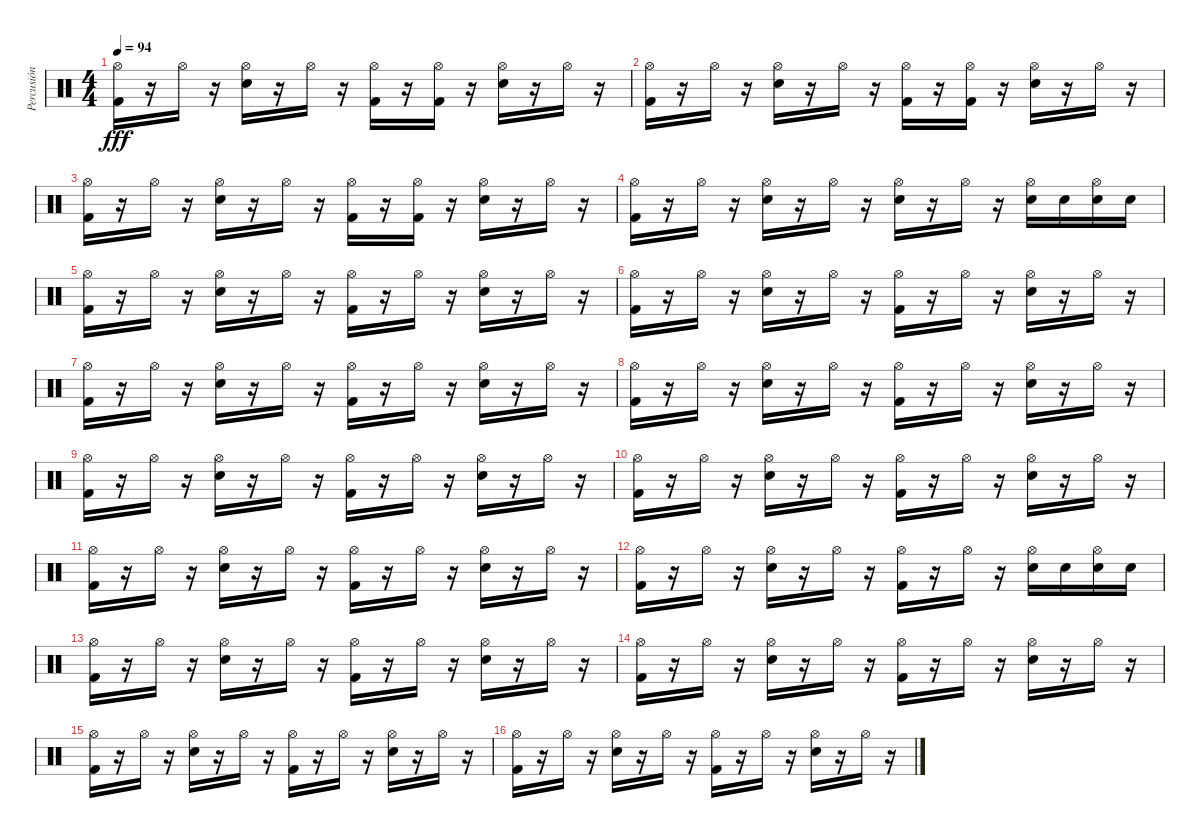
\track ("Percusión" "Percusión") {instrument percussion}
\staff {score}
\articulation defaults
\ts (4 4)
\tempo 94
\clef neutral
\ks c
("Hi-Hat (open)" "Kick (hit) 2").16{dy fff} r.16 "Hi-Hat (open)".16 r.16 ("Hi-Hat (open)" "Snare (hit) 2").16 r.16 "Hi-Hat (open)".16 r.16 ("Hi-Hat (open)" "Kick (hit) 2").16 r.16 ("Hi-Hat (open)" "Kick (hit) 2").16 r.16 ("Hi-Hat (open)" "Snare (hit) 2").16 r.16 "Hi-Hat (open)".16 r.16 |
("Hi-Hat (open)" "Kick (hit) 2").16 r.16 "Hi-Hat (open)".16 r.16 ("Hi-Hat (open)" "Snare (hit) 2").16 r.16 "Hi-Hat (open)".16 r.16 ("Hi-Hat (open)" "Kick (hit) 2").16 r.16 ("Hi-Hat (open)" "Kick (hit) 2").16 r.16 ("Hi-Hat (open)" "Snare (hit) 2").16 r.16 "Hi-Hat (open)".16 r.16 |
("Hi-Hat (open)" "Kick (hit) 2").16 r.16 "Hi-Hat (open)".16 r.16 ("Hi-Hat (open)" "Snare (hit) 2").16 r.16 "Hi-Hat (open)".16 r.16 ("Hi-Hat (open)" "Kick (hit) 2").16 r.16 ("Hi-Hat (open)" "Kick (hit) 2").16 r.16 ("Hi-Hat (open)" "Snare (hit) 2").16 r.16 "Hi-Hat (open)".16 r.16 |
("Hi-Hat (open)" "Kick (hit) 2").16 r.16 "Hi-Hat (open)".16 r.16 ("Hi-Hat (open)" "Snare (hit) 2").16 r.16 "Hi-Hat (open)".16 r.16 ("Hi-Hat (open)" "Snare (hit) 2").16 r.16 "Hi-Hat (open)".16 r.16 ("Hi-Hat (open)" "Snare (hit) 2").16 "Snare (hit) 2".16 ("Hi-Hat (open)" "Snare (hit) 2").16 "Snare (hit) 2".16 |
("Hi-Hat (open)" "Kick (hit) 2").16 r.16 "Hi-Hat (open)".16 r.16 ("Hi-Hat (open)" "Snare (hit) 2").16 r.16 "Hi-Hat (open)".16 r.16 ("Hi-Hat (open)" "Kick (hit) 2").16 r.16 "Hi-Hat (open)".16 r.16 ("Hi-Hat (open)" "Snare (hit) 2").16 r.16 "Hi-Hat (open)".16 r.16 |
("Hi-Hat (open)" "Kick (hit) 2").16 r.16 "Hi-Hat (open)".16 r.16 ("Hi-Hat (open)" "Snare (hit) 2").16 r.16 "Hi-Hat (open)".16 r.16 ("Hi-Hat (open)" "Kick (hit) 2").16 r.16 "Hi-Hat (open)".16 r.16 ("Hi-Hat (open)" "Snare (hit) 2").16 r.16 "Hi-Hat (open)".16 r.16 |
("Hi-Hat (open)" "Kick (hit) 2").16 r.16 "Hi-Hat (open)".16 r.16 ("Hi-Hat (open)" "Snare (hit) 2").16 r.16 "Hi-Hat (open)".16 r.16 ("Hi-Hat (open)" "Kick (hit) 2").16 r.16 "Hi-Hat (open)".16 r.16 ("Hi-Hat (open)" "Snare (hit) 2").16 r.16 "Hi-Hat (open)".16 r.16 |
("Hi-Hat (open)" "Kick (hit) 2").16 r.16 "Hi-Hat (open)".16 r.16 ("Hi-Hat (open)" "Snare (hit) 2").16 r.16 "Hi-Hat (open)".16 r.16 ("Hi-Hat (open)" "Kick (hit) 2").16 r.16 "Hi-Hat (open)".16 r.16 ("Hi-Hat (open)" "Snare (hit) 2").16 r.16 "Hi-Hat (open)".16 r.16 |
("Hi-Hat (open)" "Kick (hit) 2").16 r.16 "Hi-Hat (open)".16 r.16 ("Hi-Hat (open)" "Snare (hit) 2").16 r.16 "Hi-Hat (open)".16 r.16 ("Hi-Hat (open)" "Kick (hit) 2").16 r.16 "Hi-Hat (open)".16 r.16 ("Hi-Hat (open)" "Snare (hit) 2").16 r.16 "Hi-Hat (open)".16 r.16 |
("Hi-Hat (open)" "Kick (hit) 2").16 r.16 "Hi-Hat (open)".16 r.16 ("Hi-Hat (open)" "Snare (hit) 2").16 r.16 "Hi-Hat (open)".16 r.16 ("Hi-Hat (open)" "Kick (hit) 2").16 r.16 "Hi-Hat (open)".16 r.16 ("Hi-Hat (open)" "Snare (hit) 2").16 r.16 "Hi-Hat (open)".16 r.16 |
("Hi-Hat (open)" "Kick (hit) 2").16 r.16 "Hi-Hat (open)".16 r.16 ("Hi-Hat (open)" "Snare (hit) 2").16 r.16 "Hi-Hat (open)".16 r.16 ("Hi-Hat (open)" "Kick (hit) 2").16 r.16 "Hi-Hat (open)".16 r.16 ("Hi-Hat (open)" "Snare (hit) 2").16 r.16 "Hi-Hat (open)".16 r.16 |
("Hi-Hat (open)" "Kick (hit) 2").16 r.16 "Hi-Hat (open)".16 r.16 ("Hi-Hat (open)" "Snare (hit) 2").16 r.16 "Hi-Hat (open)".16 r.16 ("Hi-Hat (open)" "Kick (hit) 2").16 r.16 "Hi-Hat (open)".16 r.16 ("Hi-Hat (open)" "Snare (hit) 2").16 "Snare (hit) 2".16 ("Hi-Hat (open)" "Snare (hit) 2").16 "Snare (hit) 2".16 |
("Hi-Hat (open)" "Kick (hit) 2").16 r.16 "Hi-Hat (open)".16 r.16 ("Hi-Hat (open)" "Snare (hit) 2").16 r.16 "Hi-Hat (open)".16 r.16 ("Hi-Hat (open)" "Kick (hit) 2").16 r.16 "Hi-Hat (open)".16 r.16 ("Hi-Hat (open)" "Snare (hit) 2").16 r.16 "Hi-Hat (open)".16 r.16 |
("Hi-Hat (open)" "Kick (hit) 2").16 r.16 "Hi-Hat (open)".16 r.16 ("Hi-Hat (open)" "Snare (hit) 2").16 r.16 "Hi-Hat (open)".16 r.16 ("Hi-Hat (open)" "Kick (hit) 2").16 r.16 "Hi-Hat (open)".16 r.16 ("Hi-Hat (open)" "Snare (hit) 2").16 r.16 "Hi-Hat (open)".16 r.16 |
("Hi-Hat (open)" "Kick (hit) 2").16 r.16 "Hi-Hat (open)".16 r.16 ("Hi-Hat (open)" "Snare (hit) 2").16 r.16 "Hi-Hat (open)".16 r.16 ("Hi-Hat (open)" "Kick (hit) 2").16 r.16 "Hi-Hat (open)".16 r.16 ("Hi-Hat (open)" "Snare (hit) 2").16 r.16 "Hi-Hat (open)".16 r.16 |
("Hi-Hat (open)" "Kick (hit) 2").16 r.16 "Hi-Hat (open)".16 r.16 ("Hi-Hat (open)" "Snare (hit) 2").16 r.16 "Hi-Hat (open)".16 r.16 ("Hi-Hat (open)" "Kick (hit) 2").16 r.16 "Hi-Hat (open)".16 r.16 ("Hi-Hat (open)" "Snare (hit) 2").16 r.16 "Hi-Hat (open)".16 r.16
